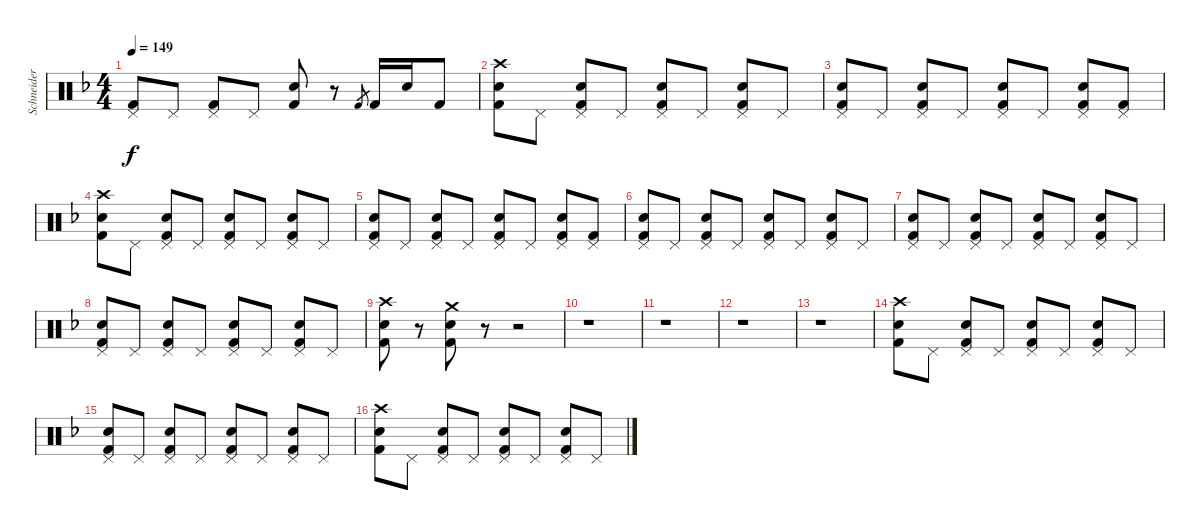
\track ("Schneider" "Schneider") {instrument percussion}
\staff {score}
\articulation defaults
\ts (4 4)
\tempo 149
\clef neutral
\ks dminor
("Pedal Hi-Hat (hit)" "Kick (hit) 2").8{dy f} "Pedal Hi-Hat (hit)".8 ("Pedal Hi-Hat (hit)" "Kick (hit) 2").8 "Pedal Hi-Hat (hit)".8 ("Snare (hit) 2" "Kick (hit) 2").8 r.8 "Kick (hit) 2".8{gr} "Kick (hit) 2".16 "Snare (hit) 2".16 "Kick (hit) 2".8 |
("Crash high (hit)" "Snare (hit) 2" "Kick (hit) 2").8 "Pedal Hi-Hat (hit)".8 ("Pedal Hi-Hat (hit)" "Snare (hit) 2" "Kick (hit) 2").8 "Pedal Hi-Hat (hit)".8 ("Pedal Hi-Hat (hit)" "Snare (hit) 2" "Kick (hit) 2").8 "Pedal Hi-Hat (hit)".8 ("Pedal Hi-Hat (hit)" "Snare (hit) 2" "Kick (hit) 2").8 "Pedal Hi-Hat (hit)".8 |
("Pedal Hi-Hat (hit)" "Snare (hit) 2" "Kick (hit) 2").8 "Pedal Hi-Hat (hit)".8 ("Pedal Hi-Hat (hit)" "Snare (hit) 2" "Kick (hit) 2").8 "Pedal Hi-Hat (hit)".8 ("Pedal Hi-Hat (hit)" "Snare (hit) 2" "Kick (hit) 2").8 "Pedal Hi-Hat (hit)".8 ("Pedal Hi-Hat (hit)" "Snare (hit) 2" "Kick (hit) 2").8 ("Pedal Hi-Hat (hit)" "Kick (hit) 2").8 |
("Crash high (hit)" "Snare (hit) 2" "Kick (hit) 2").8 "Pedal Hi-Hat (hit)".8 ("Pedal Hi-Hat (hit)" "Snare (hit) 2" "Kick (hit) 2").8 "Pedal Hi-Hat (hit)".8 ("Pedal Hi-Hat (hit)" "Snare (hit) 2" "Kick (hit) 2").8 "Pedal Hi-Hat (hit)".8 ("Pedal Hi-Hat (hit)" "Snare (hit) 2" "Kick (hit) 2").8 "Pedal Hi-Hat (hit)".8 |
("Pedal Hi-Hat (hit)" "Snare (hit) 2" "Kick (hit) 2").8 "Pedal Hi-Hat (hit)".8 ("Pedal Hi-Hat (hit)" "Snare (hit) 2" "Kick (hit) 2").8 "Pedal Hi-Hat (hit)".8 ("Pedal Hi-Hat (hit)" "Snare (hit) 2" "Kick (hit) 2").8 "Pedal Hi-Hat (hit)".8 ("Pedal Hi-Hat (hit)" "Snare (hit) 2" "Kick (hit) 2").8 ("Pedal Hi-Hat (hit)" "Kick (hit) 2").8 |
("Pedal Hi-Hat (hit)" "Snare (hit) 2" "Kick (hit) 2").8 "Pedal Hi-Hat (hit)".8 ("Pedal Hi-Hat (hit)" "Snare (hit) 2" "Kick (hit) 2").8 "Pedal Hi-Hat (hit)".8 ("Pedal Hi-Hat (hit)" "Snare (hit) 2" "Kick (hit) 2").8 "Pedal Hi-Hat (hit)".8 ("Pedal Hi-Hat (hit)" "Snare (hit) 2" "Kick (hit) 2").8 "Pedal Hi-Hat (hit)".8 |
("Pedal Hi-Hat (hit)" "Snare (hit) 2" "Kick (hit) 2").8 "Pedal Hi-Hat (hit)".8 ("Pedal Hi-Hat (hit)" "Snare (hit) 2" "Kick (hit) 2").8 "Pedal Hi-Hat (hit)".8 ("Pedal Hi-Hat (hit)" "Snare (hit) 2" "Kick (hit) 2").8 "Pedal Hi-Hat (hit)".8 ("Pedal Hi-Hat (hit)" "Snare (hit) 2" "Kick (hit) 2").8 "Pedal Hi-Hat (hit)".8 |
("Pedal Hi-Hat (hit)" "Snare (hit) 2" "Kick (hit) 2").8 "Pedal Hi-Hat (hit)".8 ("Pedal Hi-Hat (hit)" "Snare (hit) 2" "Kick (hit) 2").8 "Pedal Hi-Hat (hit)".8 ("Pedal Hi-Hat (hit)" "Snare (hit) 2" "Kick (hit) 2").8 "Pedal Hi-Hat (hit)".8 ("Pedal Hi-Hat (hit)" "Snare (hit) 2" "Kick (hit) 2").8 "Pedal Hi-Hat (hit)".8 |
("Crash high (hit)" "Snare (hit) 2" "Kick (hit) 2").8 r.8 ("Crash medium (hit)" "Snare (hit) 2" "Kick (hit) 2").8 r.8 r.2 |
r.1 |
r.1 |
r.1 |
r.1 |
("Crash high (hit)" "Snare (hit) 2" "Kick (hit) 2").8 "Pedal Hi-Hat (hit)".8 ("Pedal Hi-Hat (hit)" "Snare (hit) 2" "Kick (hit) 2").8 "Pedal Hi-Hat (hit)".8 ("Pedal Hi-Hat (hit)" "Snare (hit) 2" "Kick (hit) 2").8 "Pedal Hi-Hat (hit)".8 ("Pedal Hi-Hat (hit)" "Snare (hit) 2" "Kick (hit) 2").8 "Pedal Hi-Hat (hit)".8 |
("Pedal Hi-Hat (hit)" "Snare (hit) 2" "Kick (hit) 2").8 "Pedal Hi-Hat (hit)".8 ("Pedal Hi-Hat (hit)" "Snare (hit) 2" "Kick (hit) 2").8 "Pedal Hi-Hat (hit)".8 ("Pedal Hi-Hat (hit)" "Snare (hit) 2" "Kick (hit) 2").8 "Pedal Hi-Hat (hit)".8 ("Pedal Hi-Hat (hit)" "Snare (hit) 2" "Kick (hit) 2").8 "Pedal Hi-Hat (hit)".8 |
("Crash high (hit)" "Snare (hit) 2" "Kick (hit) 2").8 "Pedal Hi-Hat (hit)".8 ("Pedal Hi-Hat (hit)" "Snare (hit) 2" "Kick (hit) 2").8 "Pedal Hi-Hat (hit)".8 ("Pedal Hi-Hat (hit)" "Snare (hit) 2" "Kick (hit) 2").8 "Pedal Hi-Hat (hit)".8 ("Pedal Hi-Hat (hit)" "Snare (hit) 2" "Kick (hit) 2").8 "Pedal Hi-Hat (hit)".8
